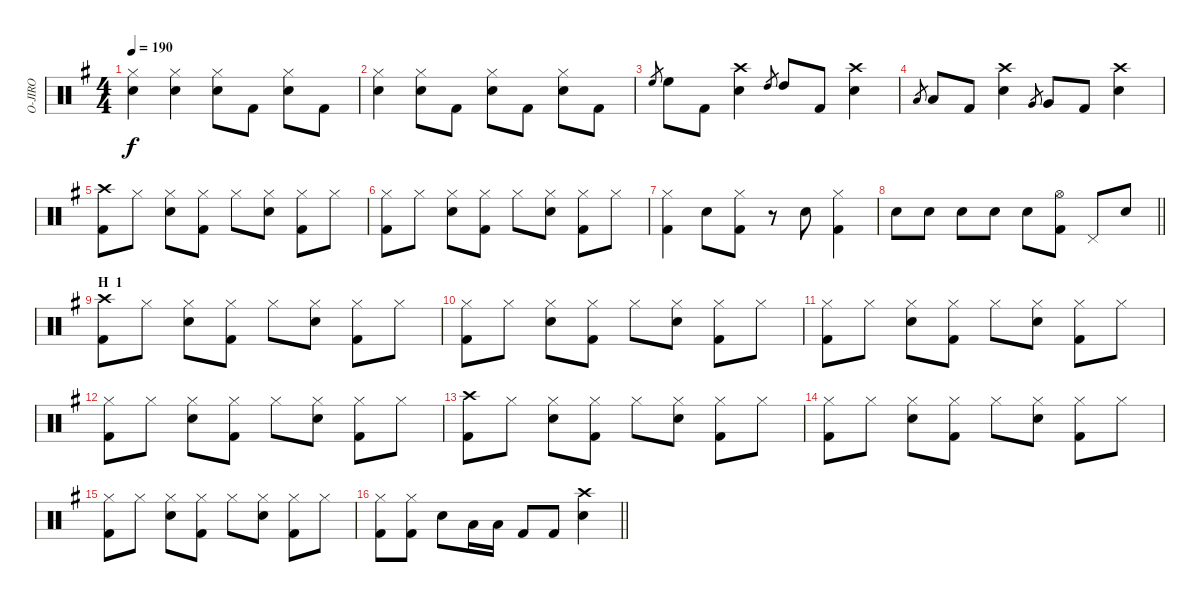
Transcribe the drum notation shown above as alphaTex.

\track ("O-JIRO" "O-JIRO") {instrument percussion}
\staff {score}
\articulation defaults
\ts (4 4)
\tempo 190
\clef neutral
\ks g
("Hi-Hat (closed)" "Snare (hit) 2").4{dy f} ("Hi-Hat (closed)" "Snare (hit) 2").4 ("Hi-Hat (closed)" "Snare (hit) 2").8 "Kick (hit) 2".8 ("Hi-Hat (closed)" "Snare (hit) 2").8 "Kick (hit) 2".8 |
("Hi-Hat (closed)" "Snare (hit) 2").4 ("Hi-Hat (closed)" "Snare (hit) 2").8 "Kick (hit) 2".8 ("Hi-Hat (closed)" "Snare (hit) 2").8 "Kick (hit) 2".8 ("Hi-Hat (closed)" "Snare (hit) 2").8 "Kick (hit) 2".8 |
"High Floor Tom (hit)".8{gr} "High Floor Tom (hit)".8 "Kick (hit) 2".8 ("Crash high (hit)" "Snare (hit) 2").4 "High Tom (hit)".8{gr} "High Tom (hit)".8 "Kick (hit) 2".8 ("Crash high (hit)" "Snare (hit) 2").4 |
"Low Tom (hit)".8{gr} "Low Tom (hit)".8 "Kick (hit) 2".8 ("Crash high (hit)" "Snare (hit) 2").4 "Very Low Tom (hit)".8{gr} "Very Low Tom (hit)".8 "Kick (hit) 2".8 ("Crash high (hit)" "Snare (hit) 2").4 |
("Crash high (hit)" "Kick (hit) 2").8 "Hi-Hat (closed)".8 ("Hi-Hat (closed)" "Snare (hit) 2").8 ("Hi-Hat (closed)" "Kick (hit) 2").8 "Hi-Hat (closed)".8 ("Hi-Hat (closed)" "Snare (hit) 2").8 ("Hi-Hat (closed)" "Kick (hit) 2").8 "Hi-Hat (closed)".8 |
("Hi-Hat (closed)" "Kick (hit) 2").8 "Hi-Hat (closed)".8 ("Hi-Hat (closed)" "Snare (hit) 2").8 ("Hi-Hat (closed)" "Kick (hit) 2").8 "Hi-Hat (closed)".8 ("Hi-Hat (closed)" "Snare (hit) 2").8 ("Hi-Hat (closed)" "Kick (hit) 2").8 "Hi-Hat (closed)".8 |
("Hi-Hat (closed)" "Kick (hit) 2").4 "Snare (hit) 2".8 ("Hi-Hat (closed)" "Kick (hit) 2").8 r.8 "Snare (hit) 2".8 ("Hi-Hat (closed)" "Kick (hit) 2").4 |
\barLineRight lightlight "Snare (hit) 2".8 "Snare (hit) 2".8 "Snare (hit) 2".8 "Snare (hit) 2".8 "Snare (hit) 2".8
("Hi-Hat (open)" "Kick (hit) 2").8 "Pedal Hi-Hat (hit)".8 "Snare (hit) 2".8 |
\section ("" "H  1")
("Crash high (hit)" "Kick (hit) 2").8 "Hi-Hat (closed)".8 ("Hi-Hat (closed)" "Snare (hit) 2").8 ("Hi-Hat (closed)" "Kick (hit) 2").8 "Hi-Hat (closed)".8 ("Hi-Hat (closed)" "Snare (hit) 2").8 ("Hi-Hat (closed)" "Kick (hit) 2").8 "Hi-Hat (closed)".8 |
("Hi-Hat (closed)" "Kick (hit) 2").8 "Hi-Hat (closed)".8 ("Hi-Hat (closed)" "Snare (hit) 2").8 ("Hi-Hat (closed)" "Kick (hit) 2").8 "Hi-Hat (closed)".8 ("Hi-Hat (closed)" "Snare (hit) 2").8 ("Hi-Hat (closed)" "Kick (hit) 2").8 "Hi-Hat (closed)".8 |
("Hi-Hat (closed)" "Kick (hit) 2").8 "Hi-Hat (closed)".8 ("Hi-Hat (closed)" "Snare (hit) 2").8 ("Hi-Hat (closed)" "Kick (hit) 2").8 "Hi-Hat (closed)".8 ("Hi-Hat (closed)" "Snare (hit) 2").8 ("Hi-Hat (closed)" "Kick (hit) 2").8 "Hi-Hat (closed)".8 |
("Hi-Hat (closed)" "Kick (hit) 2").8 "Hi-Hat (closed)".8 ("Hi-Hat (closed)" "Snare (hit) 2").8 ("Hi-Hat (closed)" "Kick (hit) 2").8 "Hi-Hat (closed)".8 ("Hi-Hat (closed)" "Snare (hit) 2").8 ("Hi-Hat (closed)" "Kick (hit) 2").8 "Hi-Hat (closed)".8 |
("Crash high (hit)" "Kick (hit) 2").8 "Hi-Hat (closed)".8 ("Hi-Hat (closed)" "Snare (hit) 2").8 ("Hi-Hat (closed)" "Kick (hit) 2").8 "Hi-Hat (closed)".8 ("Hi-Hat (closed)" "Snare (hit) 2").8 ("Hi-Hat (closed)" "Kick (hit) 2").8 "Hi-Hat (closed)".8 |
("Hi-Hat (closed)" "Kick (hit) 2").8 "Hi-Hat (closed)".8 ("Hi-Hat (closed)" "Snare (hit) 2").8 ("Hi-Hat (closed)" "Kick (hit) 2").8 "Hi-Hat (closed)".8 ("Hi-Hat (closed)" "Snare (hit) 2").8 ("Hi-Hat (closed)" "Kick (hit) 2").8 "Hi-Hat (closed)".8 |
("Hi-Hat (closed)" "Kick (hit) 2").8 "Hi-Hat (closed)".8 ("Hi-Hat (closed)" "Snare (hit) 2").8 ("Hi-Hat (closed)" "Kick (hit) 2").8 "Hi-Hat (closed)".8 ("Hi-Hat (closed)" "Snare (hit) 2").8 ("Hi-Hat (closed)" "Kick (hit) 2").8 "Hi-Hat (closed)".8 |
\barLineRight lightlight
("Hi-Hat (closed)" "Kick (hit) 2").8 ("Hi-Hat (closed)" "Kick (hit) 2").8 "Snare (hit) 2".8 "Low Tom (hit)".16 "Low Tom (hit)".16 "Kick (hit) 2".8 "Kick (hit) 2".8 ("Crash high (hit)" "Snare (hit) 2").4
